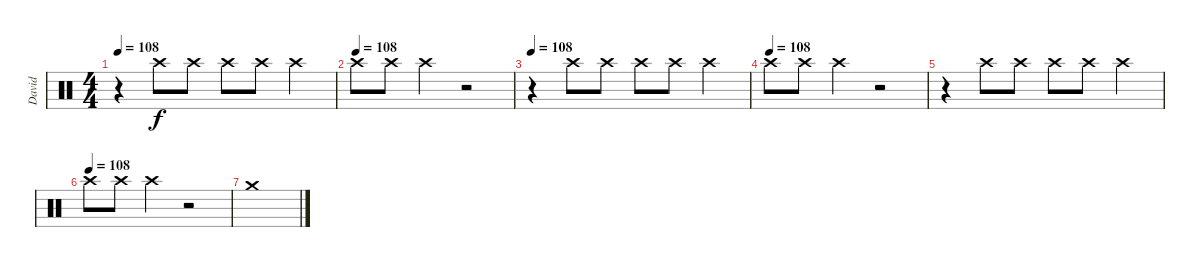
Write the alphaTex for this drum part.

\track ("David" "David") {instrument percussion}
\staff {score}
\articulation defaults
\ts (4 4)
\tempo 108
\clef neutral
\ks c
r.4{dy f} "Crash high (hit)".8 "Crash high (hit)".8 "Crash high (hit)".8 "Crash high (hit)".8 "Crash high (hit)".4 |
\tempo (108)
"Crash high (hit)".8 "Crash high (hit)".8 "Crash high (hit)".4 r.2 |
\tempo 108
r.4 "Crash high (hit)".8 "Crash high (hit)".8 "Crash high (hit)".8 "Crash high (hit)".8 "Crash high (hit)".4 |
\tempo (108)
"Crash high (hit)".8 "Crash high (hit)".8 "Crash high (hit)".4 r.2 |
r.4 "Crash high (hit)".8 "Crash high (hit)".8 "Crash high (hit)".8 "Crash high (hit)".8 "Crash high (hit)".4 |
\tempo (108)
"Crash high (hit)".8 "Crash high (hit)".8 "Crash high (hit)".4 r.2 |
"Crash medium (hit)".1
